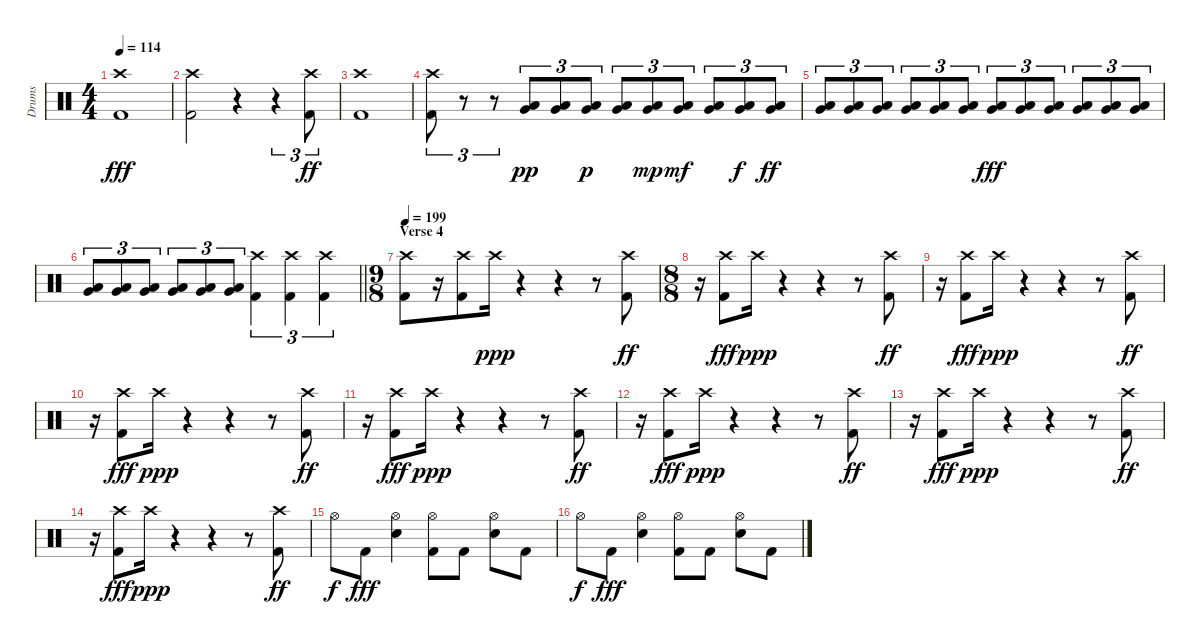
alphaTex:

\track ("Drums" "Drums") {instrument percussion}
\staff {score}
\articulation defaults
\ts (4 4)
\tempo 114
\clef neutral
\ks c
("Crash high (hit)" "Kick (hit) 2").1{dy fff} |
("Crash high (hit)" "Kick (hit) 2").2 r.4 r.4{tu (3 2)} ("Crash high (hit)" "Kick (hit) 2").8{tu (3 2) dy ff} |
("Crash high (hit)" "Kick (hit) 2").1 |
("Crash high (hit)" "Kick (hit) 2").8{tu (3 2)} r.8{tu (3 2)} r.8{tu (3 2)} ("Very Low Tom (hit)" "Low Floor Tom (hit)").8{tu (3 2) dy pp} ("Very Low Tom (hit)" "Low Floor Tom (hit)").8{tu (3 2)} ("Very Low Tom (hit)" "Low Floor Tom (hit)").8{tu (3 2) dy p} ("Very Low Tom (hit)" "Low Floor Tom (hit)").8{tu (3 2)} ("Very Low Tom (hit)" "Low Floor Tom (hit)").8{tu (3 2) dy mp} ("Very Low Tom (hit)" "Low Floor Tom (hit)").8{tu (3 2) dy mf} ("Very Low Tom (hit)" "Low Floor Tom (hit)").8{tu (3 2)} ("Very Low Tom (hit)" "Low Floor Tom (hit)").8{tu (3 2) dy f} ("Very Low Tom (hit)" "Low Floor Tom (hit)").8{tu (3 2) dy ff} |
("Very Low Tom (hit)" "Low Floor Tom (hit)").8{tu (3 2)} ("Very Low Tom (hit)" "Low Floor Tom (hit)").8{tu (3 2)} ("Very Low Tom (hit)" "Low Floor Tom (hit)").8{tu (3 2)} ("Very Low Tom (hit)" "Low Floor Tom (hit)").8{tu (3 2)} ("Very Low Tom (hit)" "Low Floor Tom (hit)").8{tu (3 2)} ("Very Low Tom (hit)" "Low Floor Tom (hit)").8{tu (3 2)} ("Very Low Tom (hit)" "Low Floor Tom (hit)").8{tu (3 2) dy fff} ("Very Low Tom (hit)" "Low Floor Tom (hit)").8{tu (3 2)} ("Very Low Tom (hit)" "Low Floor Tom (hit)").8{tu (3 2)} ("Very Low Tom (hit)" "Low Floor Tom (hit)").8{tu (3 2)} ("Very Low Tom (hit)" "Low Floor Tom (hit)").8{tu (3 2)} ("Very Low Tom (hit)" "Low Floor Tom (hit)").8{tu (3 2)} |
\barLineRight lightlight
("Very Low Tom (hit)" "Low Floor Tom (hit)").8{tu (3 2)} ("Very Low Tom (hit)" "Low Floor Tom (hit)").8{tu (3 2)} ("Very Low Tom (hit)" "Low Floor Tom (hit)").8{tu (3 2)} ("Very Low Tom (hit)" "Low Floor Tom (hit)").8{tu (3 2)} ("Very Low Tom (hit)" "Low Floor Tom (hit)").8{tu (3 2)} ("Very Low Tom (hit)" "Low Floor Tom (hit)").8{tu (3 2)} ("Crash high (hit)" "Kick (hit) 2").4{tu (3 2)} ("Crash high (hit)" "Kick (hit) 2").4{tu (3 2)} ("Crash high (hit)" "Kick (hit) 2").4{tu (3 2)} |
\ts (9 8)
\section ("" "Verse 4")
\tempo 199
("Crash high (hit)" "Kick (hit) 2").8 r.16 ("Crash high (hit)" "Kick (hit) 2").8 "Crash high (hit)".16{dy ppp} r.4 r.4 r.8 ("Crash high (hit)" "Kick (hit) 2").8{dy ff} |
\ts (8 8)
r.16 ("Crash high (hit)" "Kick (hit) 2").8{dy fff} "Crash high (hit)".16{dy ppp} r.4 r.4 r.8 ("Crash high (hit)" "Kick (hit) 2").8{dy ff} |
r.16 ("Crash high (hit)" "Kick (hit) 2").8{dy fff} "Crash high (hit)".16{dy ppp} r.4 r.4 r.8 ("Crash high (hit)" "Kick (hit) 2").8{dy ff} |
r.16 ("Crash high (hit)" "Kick (hit) 2").8{dy fff} "Crash high (hit)".16{dy ppp} r.4 r.4 r.8 ("Crash high (hit)" "Kick (hit) 2").8{dy ff} |
r.16 ("Crash high (hit)" "Kick (hit) 2").8{dy fff} "Crash high (hit)".16{dy ppp} r.4 r.4 r.8 ("Crash high (hit)" "Kick (hit) 2").8{dy ff} |
r.16 ("Crash high (hit)" "Kick (hit) 2").8{dy fff} "Crash high (hit)".16{dy ppp} r.4 r.4 r.8 ("Crash high (hit)" "Kick (hit) 2").8{dy ff} |
r.16 ("Crash high (hit)" "Kick (hit) 2").8{dy fff} "Crash high (hit)".16{dy ppp} r.4 r.4 r.8 ("Crash high (hit)" "Kick (hit) 2").8{dy ff} |
r.16 ("Crash high (hit)" "Kick (hit) 2").8{dy fff} "Crash high (hit)".16{dy ppp} r.4 r.4 r.8 ("Crash high (hit)" "Kick (hit) 2").8{dy ff} |
"Hi-Hat (open)".8{dy f} "Kick (hit) 2".8{dy fff} ("Hi-Hat (open)" "Snare (hit) 2").4 ("Hi-Hat (open)" "Kick (hit) 2").8 "Kick (hit) 2".8 ("Hi-Hat (open)" "Snare (hit) 2").8 "Kick (hit) 2".8 |
"Hi-Hat (open)".8{dy f} "Kick (hit) 2".8{dy fff} ("Hi-Hat (open)" "Snare (hit) 2").4 ("Hi-Hat (open)" "Kick (hit) 2").8 "Kick (hit) 2".8 ("Hi-Hat (open)" "Snare (hit) 2").8 "Kick (hit) 2".8
